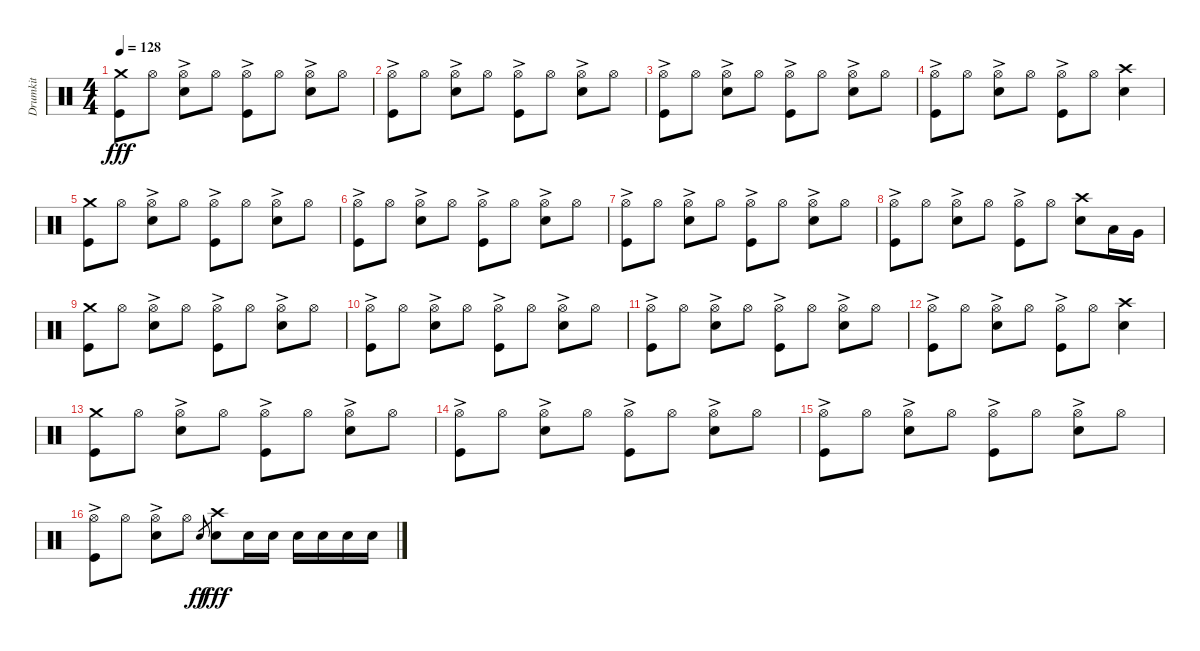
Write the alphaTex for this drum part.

\track ("Drumkit" "Drumkit") {instrument percussion}
\staff {score}
\articulation defaults
\ts (4 4)
\tempo 128
\clef neutral
\ks c
("Kick (hit)" "Crash medium (hit)").8{dy fff} "Hi-Hat (open)".8 ("Snare (hit) 2" "Hi-Hat (open)"{ac}).8 "Hi-Hat (open)".8 ("Kick (hit)" "Hi-Hat (open)"{ac}).8 "Hi-Hat (open)".8 ("Snare (hit) 2" "Hi-Hat (open)"{ac}).8 "Hi-Hat (open)".8 |
("Kick (hit)" "Hi-Hat (open)"{ac}).8 "Hi-Hat (open)".8 ("Snare (hit) 2" "Hi-Hat (open)"{ac}).8 "Hi-Hat (open)".8 ("Kick (hit)" "Hi-Hat (open)"{ac}).8 "Hi-Hat (open)".8 ("Snare (hit) 2" "Hi-Hat (open)"{ac}).8 "Hi-Hat (open)".8 |
("Kick (hit)" "Hi-Hat (open)"{ac}).8 "Hi-Hat (open)".8 ("Snare (hit) 2" "Hi-Hat (open)"{ac}).8 "Hi-Hat (open)".8 ("Kick (hit)" "Hi-Hat (open)"{ac}).8 "Hi-Hat (open)".8 ("Snare (hit) 2" "Hi-Hat (open)"{ac}).8 "Hi-Hat (open)".8 |
("Kick (hit)" "Hi-Hat (open)"{ac}).8 "Hi-Hat (open)".8 ("Snare (hit) 2" "Hi-Hat (open)"{ac}).8 "Hi-Hat (open)".8 ("Kick (hit)" "Hi-Hat (open)"{ac}).8 "Hi-Hat (open)".8 ("Snare (hit) 2" "Crash high (hit)").4 |
("Kick (hit)" "Crash medium (hit)").8 "Hi-Hat (open)".8 ("Snare (hit) 2" "Hi-Hat (open)"{ac}).8 "Hi-Hat (open)".8 ("Kick (hit)" "Hi-Hat (open)"{ac}).8 "Hi-Hat (open)".8 ("Snare (hit) 2" "Hi-Hat (open)"{ac}).8 "Hi-Hat (open)".8 |
("Kick (hit)" "Hi-Hat (open)"{ac}).8 "Hi-Hat (open)".8 ("Snare (hit) 2" "Hi-Hat (open)"{ac}).8 "Hi-Hat (open)".8 ("Kick (hit)" "Hi-Hat (open)"{ac}).8 "Hi-Hat (open)".8 ("Snare (hit) 2" "Hi-Hat (open)"{ac}).8 "Hi-Hat (open)".8 |
("Kick (hit)" "Hi-Hat (open)"{ac}).8 "Hi-Hat (open)".8 ("Snare (hit) 2" "Hi-Hat (open)"{ac}).8 "Hi-Hat (open)".8 ("Kick (hit)" "Hi-Hat (open)"{ac}).8 "Hi-Hat (open)".8 ("Snare (hit) 2" "Hi-Hat (open)"{ac}).8 "Hi-Hat (open)".8 |
("Kick (hit)" "Hi-Hat (open)"{ac}).8 "Hi-Hat (open)".8 ("Snare (hit) 2" "Hi-Hat (open)"{ac}).8 "Hi-Hat (open)".8 ("Kick (hit)" "Hi-Hat (open)"{ac}).8 "Hi-Hat (open)".8 ("Snare (hit) 2" "Crash high (hit)").8 "Low Tom (hit)".16 "Very Low Tom (hit)".16 |
("Kick (hit)" "Crash medium (hit)").8 "Hi-Hat (open)".8 ("Snare (hit) 2" "Hi-Hat (open)"{ac}).8 "Hi-Hat (open)".8 ("Kick (hit)" "Hi-Hat (open)"{ac}).8 "Hi-Hat (open)".8 ("Snare (hit) 2" "Hi-Hat (open)"{ac}).8 "Hi-Hat (open)".8 |
("Kick (hit)" "Hi-Hat (open)"{ac}).8 "Hi-Hat (open)".8 ("Snare (hit) 2" "Hi-Hat (open)"{ac}).8 "Hi-Hat (open)".8 ("Kick (hit)" "Hi-Hat (open)"{ac}).8 "Hi-Hat (open)".8 ("Snare (hit) 2" "Hi-Hat (open)"{ac}).8 "Hi-Hat (open)".8 |
("Kick (hit)" "Hi-Hat (open)"{ac}).8 "Hi-Hat (open)".8 ("Snare (hit) 2" "Hi-Hat (open)"{ac}).8 "Hi-Hat (open)".8 ("Kick (hit)" "Hi-Hat (open)"{ac}).8 "Hi-Hat (open)".8 ("Snare (hit) 2" "Hi-Hat (open)"{ac}).8 "Hi-Hat (open)".8 |
("Kick (hit)" "Hi-Hat (open)"{ac}).8 "Hi-Hat (open)".8 ("Snare (hit) 2" "Hi-Hat (open)"{ac}).8 "Hi-Hat (open)".8 ("Kick (hit)" "Hi-Hat (open)"{ac}).8 "Hi-Hat (open)".8 ("Snare (hit) 2" "Crash high (hit)").4 |
("Kick (hit)" "Crash medium (hit)").8 "Hi-Hat (open)".8 ("Snare (hit) 2" "Hi-Hat (open)"{ac}).8 "Hi-Hat (open)".8 ("Kick (hit)" "Hi-Hat (open)"{ac}).8 "Hi-Hat (open)".8 ("Snare (hit) 2" "Hi-Hat (open)"{ac}).8 "Hi-Hat (open)".8 |
("Kick (hit)" "Hi-Hat (open)"{ac}).8 "Hi-Hat (open)".8 ("Snare (hit) 2" "Hi-Hat (open)"{ac}).8 "Hi-Hat (open)".8 ("Kick (hit)" "Hi-Hat (open)"{ac}).8 "Hi-Hat (open)".8 ("Snare (hit) 2" "Hi-Hat (open)"{ac}).8 "Hi-Hat (open)".8 |
("Kick (hit)" "Hi-Hat (open)"{ac}).8 "Hi-Hat (open)".8 ("Snare (hit) 2" "Hi-Hat (open)"{ac}).8 "Hi-Hat (open)".8 ("Kick (hit)" "Hi-Hat (open)"{ac}).8 "Hi-Hat (open)".8 ("Snare (hit) 2" "Hi-Hat (open)"{ac}).8 "Hi-Hat (open)".8 |
("Kick (hit)" "Hi-Hat (open)"{ac}).8 "Hi-Hat (open)".8 ("Snare (hit) 2" "Hi-Hat (open)"{ac}).8 "Hi-Hat (open)".8 "Snare (hit)".8{gr dy ff} ("Snare (hit) 2" "Crash high (hit)").8{dy fff} "Snare (hit) 2".16 "Snare (hit) 2".16 "Snare (hit) 2".16 "Snare (hit) 2".16 "Snare (hit) 2".16 "Snare (hit) 2".16
